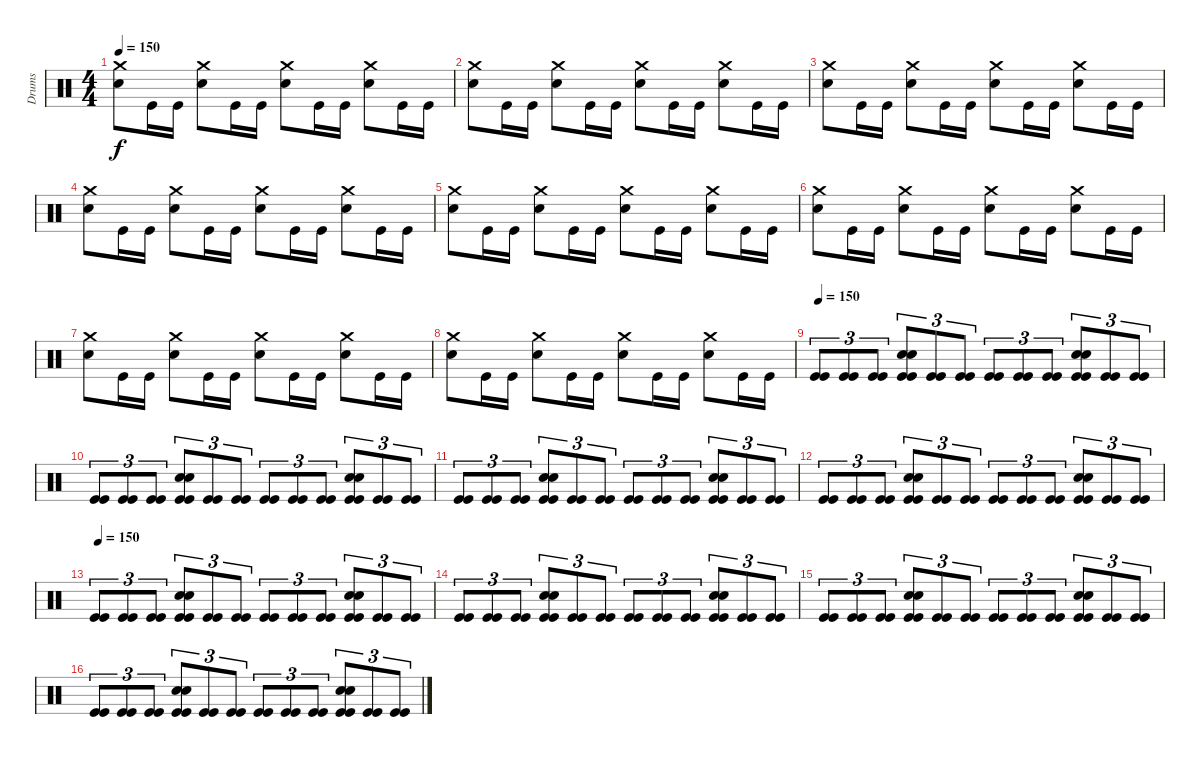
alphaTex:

\track ("Drums" "Drums") {instrument percussion}
\staff {score}
\articulation defaults
\ts (4 4)
\tempo 150
\clef neutral
\ks c
("Crash medium (hit)" "Snare (hit) 2").8{dy f} "Kick (hit)".16 "Kick (hit)".16 ("Crash medium (hit)" "Snare (hit) 2").8 "Kick (hit)".16 "Kick (hit)".16 ("Crash medium (hit)" "Snare (hit) 2").8 "Kick (hit)".16 "Kick (hit)".16 ("Crash medium (hit)" "Snare (hit) 2").8 "Kick (hit)".16 "Kick (hit)".16 |
("Crash medium (hit)" "Snare (hit) 2").8 "Kick (hit)".16 "Kick (hit)".16 ("Crash medium (hit)" "Snare (hit) 2").8 "Kick (hit)".16 "Kick (hit)".16 ("Crash medium (hit)" "Snare (hit) 2").8 "Kick (hit)".16 "Kick (hit)".16 ("Crash medium (hit)" "Snare (hit) 2").8 "Kick (hit)".16 "Kick (hit)".16 |
("Crash medium (hit)" "Snare (hit) 2").8 "Kick (hit)".16 "Kick (hit)".16 ("Crash medium (hit)" "Snare (hit) 2").8 "Kick (hit)".16 "Kick (hit)".16 ("Crash medium (hit)" "Snare (hit) 2").8 "Kick (hit)".16 "Kick (hit)".16 ("Crash medium (hit)" "Snare (hit) 2").8 "Kick (hit)".16 "Kick (hit)".16 |
("Crash medium (hit)" "Snare (hit) 2").8 "Kick (hit)".16 "Kick (hit)".16 ("Crash medium (hit)" "Snare (hit) 2").8 "Kick (hit)".16 "Kick (hit)".16 ("Crash medium (hit)" "Snare (hit) 2").8 "Kick (hit)".16 "Kick (hit)".16 ("Crash medium (hit)" "Snare (hit) 2").8 "Kick (hit)".16 "Kick (hit)".16 |
("Crash medium (hit)" "Snare (hit) 2").8 "Kick (hit)".16 "Kick (hit)".16 ("Crash medium (hit)" "Snare (hit) 2").8 "Kick (hit)".16 "Kick (hit)".16 ("Crash medium (hit)" "Snare (hit) 2").8 "Kick (hit)".16 "Kick (hit)".16 ("Crash medium (hit)" "Snare (hit) 2").8 "Kick (hit)".16 "Kick (hit)".16 |
("Crash medium (hit)" "Snare (hit) 2").8 "Kick (hit)".16 "Kick (hit)".16 ("Crash medium (hit)" "Snare (hit) 2").8 "Kick (hit)".16 "Kick (hit)".16 ("Crash medium (hit)" "Snare (hit) 2").8 "Kick (hit)".16 "Kick (hit)".16 ("Crash medium (hit)" "Snare (hit) 2").8 "Kick (hit)".16 "Kick (hit)".16 |
("Crash medium (hit)" "Snare (hit) 2").8 "Kick (hit)".16 "Kick (hit)".16 ("Crash medium (hit)" "Snare (hit) 2").8 "Kick (hit)".16 "Kick (hit)".16 ("Crash medium (hit)" "Snare (hit) 2").8 "Kick (hit)".16 "Kick (hit)".16 ("Crash medium (hit)" "Snare (hit) 2").8 "Kick (hit)".16 "Kick (hit)".16 |
("Crash medium (hit)" "Snare (hit) 2").8 "Kick (hit)".16 "Kick (hit)".16 ("Crash medium (hit)" "Snare (hit) 2").8 "Kick (hit)".16 "Kick (hit)".16 ("Crash medium (hit)" "Snare (hit) 2").8 "Kick (hit)".16 "Kick (hit)".16 ("Crash medium (hit)" "Snare (hit) 2").8 "Kick (hit)".16 "Kick (hit)".16 |
\tempo 150
("Kick (hit)" "Kick (hit)").8{tu (3 2)} ("Kick (hit)" "Kick (hit)").8{tu (3 2)} ("Kick (hit)" "Kick (hit)").8{tu (3 2)} ("Electric Snare (hit)" "Snare (hit) 2" "Kick (hit)" "Kick (hit)").8{tu (3 2)} ("Kick (hit)" "Kick (hit)").8{tu (3 2)} ("Kick (hit)" "Kick (hit)").8{tu (3 2)} ("Kick (hit)" "Kick (hit)").8{tu (3 2)} ("Kick (hit)" "Kick (hit)").8{tu (3 2)} ("Kick (hit)" "Kick (hit)").8{tu (3 2)} ("Electric Snare (hit)" "Snare (hit) 2" "Kick (hit)" "Kick (hit)").8{tu (3 2)} ("Kick (hit)" "Kick (hit)").8{tu (3 2)} ("Kick (hit)" "Kick (hit)").8{tu (3 2)} |
("Kick (hit)" "Kick (hit)").8{tu (3 2)} ("Kick (hit)" "Kick (hit)").8{tu (3 2)} ("Kick (hit)" "Kick (hit)").8{tu (3 2)} ("Electric Snare (hit)" "Snare (hit) 2" "Kick (hit)" "Kick (hit)").8{tu (3 2)} ("Kick (hit)" "Kick (hit)").8{tu (3 2)} ("Kick (hit)" "Kick (hit)").8{tu (3 2)} ("Kick (hit)" "Kick (hit)").8{tu (3 2)} ("Kick (hit)" "Kick (hit)").8{tu (3 2)} ("Kick (hit)" "Kick (hit)").8{tu (3 2)} ("Electric Snare (hit)" "Snare (hit) 2" "Kick (hit)" "Kick (hit)").8{tu (3 2)} ("Kick (hit)" "Kick (hit)").8{tu (3 2)} ("Kick (hit)" "Kick (hit)").8{tu (3 2)} |
("Kick (hit)" "Kick (hit)").8{tu (3 2)} ("Kick (hit)" "Kick (hit)").8{tu (3 2)} ("Kick (hit)" "Kick (hit)").8{tu (3 2)} ("Electric Snare (hit)" "Snare (hit) 2" "Kick (hit)" "Kick (hit)").8{tu (3 2)} ("Kick (hit)" "Kick (hit)").8{tu (3 2)} ("Kick (hit)" "Kick (hit)").8{tu (3 2)} ("Kick (hit)" "Kick (hit)").8{tu (3 2)} ("Kick (hit)" "Kick (hit)").8{tu (3 2)} ("Kick (hit)" "Kick (hit)").8{tu (3 2)} ("Electric Snare (hit)" "Snare (hit) 2" "Kick (hit)" "Kick (hit)").8{tu (3 2)} ("Kick (hit)" "Kick (hit)").8{tu (3 2)} ("Kick (hit)" "Kick (hit)").8{tu (3 2)} |
("Kick (hit)" "Kick (hit)").8{tu (3 2)} ("Kick (hit)" "Kick (hit)").8{tu (3 2)} ("Kick (hit)" "Kick (hit)").8{tu (3 2)} ("Electric Snare (hit)" "Snare (hit) 2" "Kick (hit)" "Kick (hit)").8{tu (3 2)} ("Kick (hit)" "Kick (hit)").8{tu (3 2)} ("Kick (hit)" "Kick (hit)").8{tu (3 2)} ("Kick (hit)" "Kick (hit)").8{tu (3 2)} ("Kick (hit)" "Kick (hit)").8{tu (3 2)} ("Kick (hit)" "Kick (hit)").8{tu (3 2)} ("Electric Snare (hit)" "Snare (hit) 2" "Kick (hit)" "Kick (hit)").8{tu (3 2)} ("Kick (hit)" "Kick (hit)").8{tu (3 2)} ("Kick (hit)" "Kick (hit)").8{tu (3 2)} |
\tempo 150
("Kick (hit)" "Kick (hit)").8{tu (3 2)} ("Kick (hit)" "Kick (hit)").8{tu (3 2)} ("Kick (hit)" "Kick (hit)").8{tu (3 2)} ("Electric Snare (hit)" "Snare (hit) 2" "Kick (hit)" "Kick (hit)").8{tu (3 2)} ("Kick (hit)" "Kick (hit)").8{tu (3 2)} ("Kick (hit)" "Kick (hit)").8{tu (3 2)} ("Kick (hit)" "Kick (hit)").8{tu (3 2)} ("Kick (hit)" "Kick (hit)").8{tu (3 2)} ("Kick (hit)" "Kick (hit)").8{tu (3 2)} ("Electric Snare (hit)" "Snare (hit) 2" "Kick (hit)" "Kick (hit)").8{tu (3 2)} ("Kick (hit)" "Kick (hit)").8{tu (3 2)} ("Kick (hit)" "Kick (hit)").8{tu (3 2)} |
("Kick (hit)" "Kick (hit)").8{tu (3 2)} ("Kick (hit)" "Kick (hit)").8{tu (3 2)} ("Kick (hit)" "Kick (hit)").8{tu (3 2)} ("Electric Snare (hit)" "Snare (hit) 2" "Kick (hit)" "Kick (hit)").8{tu (3 2)} ("Kick (hit)" "Kick (hit)").8{tu (3 2)} ("Kick (hit)" "Kick (hit)").8{tu (3 2)} ("Kick (hit)" "Kick (hit)").8{tu (3 2)} ("Kick (hit)" "Kick (hit)").8{tu (3 2)} ("Kick (hit)" "Kick (hit)").8{tu (3 2)} ("Electric Snare (hit)" "Snare (hit) 2" "Kick (hit)" "Kick (hit)").8{tu (3 2)} ("Kick (hit)" "Kick (hit)").8{tu (3 2)} ("Kick (hit)" "Kick (hit)").8{tu (3 2)} |
("Kick (hit)" "Kick (hit)").8{tu (3 2)} ("Kick (hit)" "Kick (hit)").8{tu (3 2)} ("Kick (hit)" "Kick (hit)").8{tu (3 2)} ("Electric Snare (hit)" "Snare (hit) 2" "Kick (hit)" "Kick (hit)").8{tu (3 2)} ("Kick (hit)" "Kick (hit)").8{tu (3 2)} ("Kick (hit)" "Kick (hit)").8{tu (3 2)} ("Kick (hit)" "Kick (hit)").8{tu (3 2)} ("Kick (hit)" "Kick (hit)").8{tu (3 2)} ("Kick (hit)" "Kick (hit)").8{tu (3 2)} ("Electric Snare (hit)" "Snare (hit) 2" "Kick (hit)" "Kick (hit)").8{tu (3 2)} ("Kick (hit)" "Kick (hit)").8{tu (3 2)} ("Kick (hit)" "Kick (hit)").8{tu (3 2)} |
("Kick (hit)" "Kick (hit)").8{tu (3 2)} ("Kick (hit)" "Kick (hit)").8{tu (3 2)} ("Kick (hit)" "Kick (hit)").8{tu (3 2)} ("Electric Snare (hit)" "Snare (hit) 2" "Kick (hit)" "Kick (hit)").8{tu (3 2)} ("Kick (hit)" "Kick (hit)").8{tu (3 2)} ("Kick (hit)" "Kick (hit)").8{tu (3 2)} ("Kick (hit)" "Kick (hit)").8{tu (3 2)} ("Kick (hit)" "Kick (hit)").8{tu (3 2)} ("Kick (hit)" "Kick (hit)").8{tu (3 2)} ("Electric Snare (hit)" "Snare (hit) 2" "Kick (hit)" "Kick (hit)").8{tu (3 2)} ("Kick (hit)" "Kick (hit)").8{tu (3 2)} ("Kick (hit)" "Kick (hit)").8{tu (3 2)}
